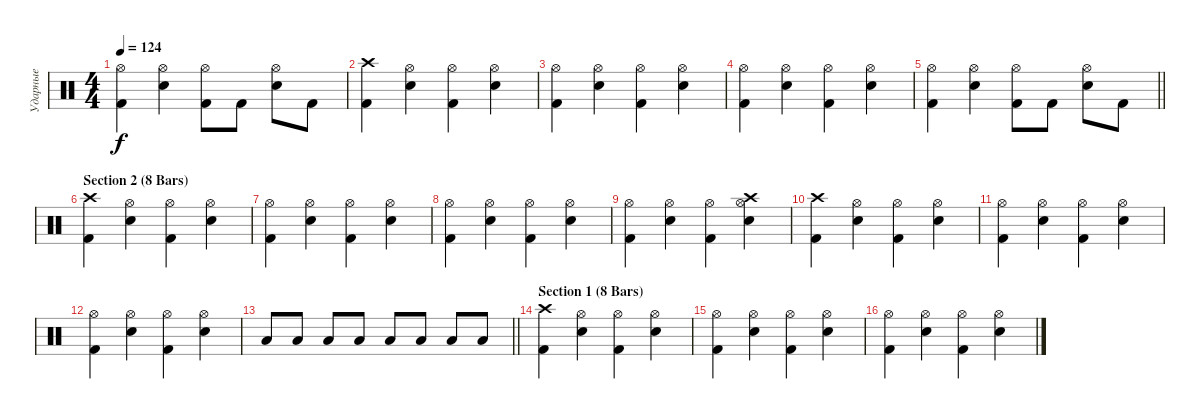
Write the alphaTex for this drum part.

\track ("Ударные" "Ударные") {instrument percussion}
\staff {score}
\articulation defaults
\ts (4 4)
\tempo 124
\clef neutral
\ks c
("Kick (hit) 2" "Hi-Hat (open)").4{dy f} ("Electric Snare (hit)" "Hi-Hat (open)").4 ("Kick (hit) 2" "Hi-Hat (open)").8 "Kick (hit) 2".8 ("Electric Snare (hit)" "Hi-Hat (open)").8 "Kick (hit) 2".8 |
("Crash high (hit)" "Kick (hit) 2").4 ("Electric Snare (hit)" "Hi-Hat (open)").4 ("Kick (hit) 2" "Hi-Hat (open)").4 ("Electric Snare (hit)" "Hi-Hat (open)").4 |
("Kick (hit) 2" "Hi-Hat (open)").4 ("Electric Snare (hit)" "Hi-Hat (open)").4 ("Kick (hit) 2" "Hi-Hat (open)").4 ("Electric Snare (hit)" "Hi-Hat (open)").4 |
("Kick (hit) 2" "Hi-Hat (open)").4 ("Electric Snare (hit)" "Hi-Hat (open)").4 ("Kick (hit) 2" "Hi-Hat (open)").4 ("Electric Snare (hit)" "Hi-Hat (open)").4 |
\barLineRight lightlight
("Kick (hit) 2" "Hi-Hat (open)").4 ("Electric Snare (hit)" "Hi-Hat (open)").4 ("Kick (hit) 2" "Hi-Hat (open)").8 "Kick (hit) 2".8 ("Electric Snare (hit)" "Hi-Hat (open)").8 "Kick (hit) 2".8 |
\section ("" "Section 2 (8 Bars)")
("Crash high (hit)" "Kick (hit) 2").4 ("Electric Snare (hit)" "Hi-Hat (open)").4 ("Kick (hit) 2" "Hi-Hat (open)").4 ("Electric Snare (hit)" "Hi-Hat (open)").4 |
("Kick (hit) 2" "Hi-Hat (open)").4 ("Electric Snare (hit)" "Hi-Hat (open)").4 ("Kick (hit) 2" "Hi-Hat (open)").4 ("Electric Snare (hit)" "Hi-Hat (open)").4 |
("Kick (hit) 2" "Hi-Hat (open)").4 ("Electric Snare (hit)" "Hi-Hat (open)").4 ("Kick (hit) 2" "Hi-Hat (open)").4 ("Electric Snare (hit)" "Hi-Hat (open)").4 |
("Kick (hit) 2" "Hi-Hat (open)").4 ("Electric Snare (hit)" "Hi-Hat (open)").4 ("Kick (hit) 2" "Hi-Hat (open)").4 ("Electric Snare (hit)" "Hi-Hat (open)" "Crash high (hit)").4 |
("Crash high (hit)" "Kick (hit) 2").4 ("Electric Snare (hit)" "Hi-Hat (open)").4 ("Kick (hit) 2" "Hi-Hat (open)").4 ("Electric Snare (hit)" "Hi-Hat (open)").4 |
("Kick (hit) 2" "Hi-Hat (open)").4 ("Electric Snare (hit)" "Hi-Hat (open)").4 ("Kick (hit) 2" "Hi-Hat (open)").4 ("Electric Snare (hit)" "Hi-Hat (open)").4 |
("Kick (hit) 2" "Hi-Hat (open)").4 ("Electric Snare (hit)" "Hi-Hat (open)").4 ("Kick (hit) 2" "Hi-Hat (open)").4 ("Electric Snare (hit)" "Hi-Hat (open)").4 |
\barLineRight lightlight "Low Floor Tom (hit)".8 "Low Floor Tom (hit)".8 "Low Floor Tom (hit)".8 "Low Floor Tom (hit)".8 "Low Floor Tom (hit)".8 "Low Floor Tom (hit)".8 "Low Floor Tom (hit)".8 "Low Floor Tom (hit)".8
|
\section ("" "Section 1 (8 Bars)")
("Crash high (hit)" "Kick (hit) 2").4 ("Electric Snare (hit)" "Hi-Hat (open)").4 ("Kick (hit) 2" "Hi-Hat (open)").4 ("Electric Snare (hit)" "Hi-Hat (open)").4 |
("Kick (hit) 2" "Hi-Hat (open)").4 ("Electric Snare (hit)" "Hi-Hat (open)").4 ("Kick (hit) 2" "Hi-Hat (open)").4 ("Electric Snare (hit)" "Hi-Hat (open)").4 |
("Kick (hit) 2" "Hi-Hat (open)").4 ("Electric Snare (hit)" "Hi-Hat (open)").4 ("Kick (hit) 2" "Hi-Hat (open)").4 ("Electric Snare (hit)" "Hi-Hat (open)").4
